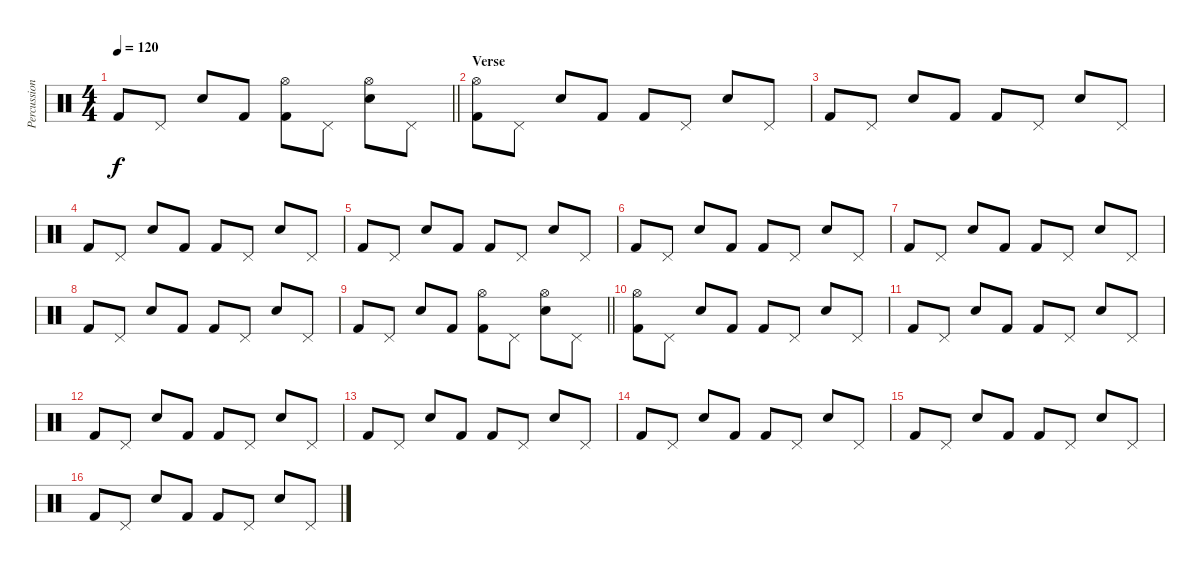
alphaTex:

\track ("Percussions" "Percussion") {instrument percussion}
\staff {score}
\articulation defaults
\ts (4 4)
\tempo 120
\clef neutral
\barLineRight lightlight
\ks c "Kick (hit) 2".8{dy f} "Pedal Hi-Hat (hit)".8 "Snare (hit) 2".8 "Kick (hit) 2".8
("Hi-Hat (open)" "Kick (hit) 2").8 "Pedal Hi-Hat (hit)".8 ("Hi-Hat (open)" "Snare (hit) 2").8 "Pedal Hi-Hat (hit)".8 |
\section ("" "Verse")
("Hi-Hat (open)" "Kick (hit) 2").8 "Pedal Hi-Hat (hit)".8 "Snare (hit) 2".8 "Kick (hit) 2".8 "Kick (hit) 2".8 "Pedal Hi-Hat (hit)".8 "Snare (hit) 2".8 "Pedal Hi-Hat (hit)".8 |
"Kick (hit) 2".8 "Pedal Hi-Hat (hit)".8 "Snare (hit) 2".8 "Kick (hit) 2".8 "Kick (hit) 2".8 "Pedal Hi-Hat (hit)".8 "Snare (hit) 2".8 "Pedal Hi-Hat (hit)".8 |
"Kick (hit) 2".8 "Pedal Hi-Hat (hit)".8 "Snare (hit) 2".8 "Kick (hit) 2".8 "Kick (hit) 2".8 "Pedal Hi-Hat (hit)".8 "Snare (hit) 2".8 "Pedal Hi-Hat (hit)".8 |
"Kick (hit) 2".8 "Pedal Hi-Hat (hit)".8 "Snare (hit) 2".8 "Kick (hit) 2".8 "Kick (hit) 2".8 "Pedal Hi-Hat (hit)".8 "Snare (hit) 2".8 "Pedal Hi-Hat (hit)".8 |
"Kick (hit) 2".8 "Pedal Hi-Hat (hit)".8 "Snare (hit) 2".8 "Kick (hit) 2".8 "Kick (hit) 2".8 "Pedal Hi-Hat (hit)".8 "Snare (hit) 2".8 "Pedal Hi-Hat (hit)".8 |
"Kick (hit) 2".8 "Pedal Hi-Hat (hit)".8 "Snare (hit) 2".8 "Kick (hit) 2".8 "Kick (hit) 2".8 "Pedal Hi-Hat (hit)".8 "Snare (hit) 2".8 "Pedal Hi-Hat (hit)".8 |
"Kick (hit) 2".8 "Pedal Hi-Hat (hit)".8 "Snare (hit) 2".8 "Kick (hit) 2".8 "Kick (hit) 2".8 "Pedal Hi-Hat (hit)".8 "Snare (hit) 2".8 "Pedal Hi-Hat (hit)".8 |
\barLineRight lightlight "Kick (hit) 2".8 "Pedal Hi-Hat (hit)".8 "Snare (hit) 2".8 "Kick (hit) 2".8
("Hi-Hat (open)" "Kick (hit) 2").8 "Pedal Hi-Hat (hit)".8 ("Hi-Hat (open)" "Snare (hit) 2").8 "Pedal Hi-Hat (hit)".8 |
("Hi-Hat (open)" "Kick (hit) 2").8 "Pedal Hi-Hat (hit)".8 "Snare (hit) 2".8 "Kick (hit) 2".8 "Kick (hit) 2".8 "Pedal Hi-Hat (hit)".8 "Snare (hit) 2".8 "Pedal Hi-Hat (hit)".8 |
"Kick (hit) 2".8 "Pedal Hi-Hat (hit)".8 "Snare (hit) 2".8 "Kick (hit) 2".8 "Kick (hit) 2".8 "Pedal Hi-Hat (hit)".8 "Snare (hit) 2".8 "Pedal Hi-Hat (hit)".8 |
"Kick (hit) 2".8 "Pedal Hi-Hat (hit)".8 "Snare (hit) 2".8 "Kick (hit) 2".8 "Kick (hit) 2".8 "Pedal Hi-Hat (hit)".8 "Snare (hit) 2".8 "Pedal Hi-Hat (hit)".8 |
"Kick (hit) 2".8 "Pedal Hi-Hat (hit)".8 "Snare (hit) 2".8 "Kick (hit) 2".8 "Kick (hit) 2".8 "Pedal Hi-Hat (hit)".8 "Snare (hit) 2".8 "Pedal Hi-Hat (hit)".8 |
"Kick (hit) 2".8 "Pedal Hi-Hat (hit)".8 "Snare (hit) 2".8 "Kick (hit) 2".8 "Kick (hit) 2".8 "Pedal Hi-Hat (hit)".8 "Snare (hit) 2".8 "Pedal Hi-Hat (hit)".8 |
"Kick (hit) 2".8 "Pedal Hi-Hat (hit)".8 "Snare (hit) 2".8 "Kick (hit) 2".8 "Kick (hit) 2".8 "Pedal Hi-Hat (hit)".8 "Snare (hit) 2".8 "Pedal Hi-Hat (hit)".8 |
"Kick (hit) 2".8 "Pedal Hi-Hat (hit)".8 "Snare (hit) 2".8 "Kick (hit) 2".8 "Kick (hit) 2".8 "Pedal Hi-Hat (hit)".8 "Snare (hit) 2".8 "Pedal Hi-Hat (hit)".8
